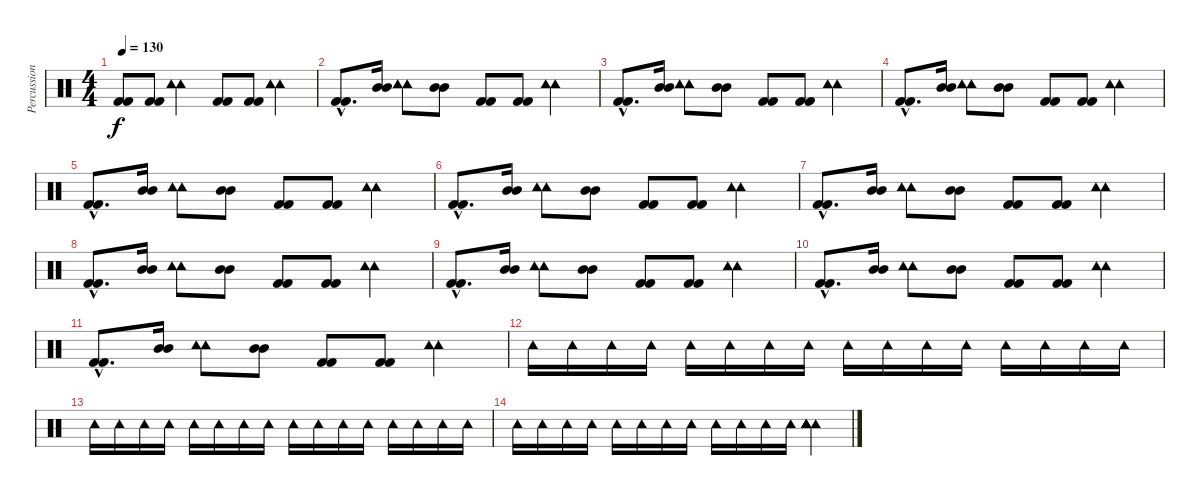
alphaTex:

\track ("Percussion" "Percussion") {instrument percussion}
\staff {score}
\articulation defaults
\ts (4 4)
\tempo 130
\clef neutral
\ks c
("Kick (hit) 2" "Kick (hit) 2").8{dy f} ("Kick (hit) 2" "Kick (hit) 2").8 ("Tambourine (hit)" "Tambourine (hit)").4 ("Kick (hit) 2" "Kick (hit) 2").8 ("Kick (hit) 2" "Kick (hit) 2").8 ("Tambourine (hit)" "Tambourine (hit)").4 |
("Kick (hit) 2"{hac} "Kick (hit) 2"{hac}).8{d} ("Mid Tom (hit)" "Mid Tom (hit)").16 ("Tambourine (hit)" "Tambourine (hit)").8 ("Mid Tom (hit)" "Mid Tom (hit)").8 ("Kick (hit) 2" "Kick (hit) 2").8 ("Kick (hit) 2" "Kick (hit) 2").8 ("Tambourine (hit)" "Tambourine (hit)").4 |
("Kick (hit) 2"{hac} "Kick (hit) 2"{hac}).8{d} ("Mid Tom (hit)" "Mid Tom (hit)").16 ("Tambourine (hit)" "Tambourine (hit)").8 ("Mid Tom (hit)" "Mid Tom (hit)").8 ("Kick (hit) 2" "Kick (hit) 2").8 ("Kick (hit) 2" "Kick (hit) 2").8 ("Tambourine (hit)" "Tambourine (hit)").4 |
("Kick (hit) 2"{hac} "Kick (hit) 2"{hac}).8{d} ("Mid Tom (hit)" "Mid Tom (hit)").16 ("Tambourine (hit)" "Tambourine (hit)").8 ("Mid Tom (hit)" "Mid Tom (hit)").8 ("Kick (hit) 2" "Kick (hit) 2").8 ("Kick (hit) 2" "Kick (hit) 2").8 ("Tambourine (hit)" "Tambourine (hit)").4 |
("Kick (hit) 2"{hac} "Kick (hit) 2"{hac}).8{d} ("Mid Tom (hit)" "Mid Tom (hit)").16 ("Tambourine (hit)" "Tambourine (hit)").8 ("Mid Tom (hit)" "Mid Tom (hit)").8 ("Kick (hit) 2" "Kick (hit) 2").8 ("Kick (hit) 2" "Kick (hit) 2").8 ("Tambourine (hit)" "Tambourine (hit)").4 |
("Kick (hit) 2"{hac} "Kick (hit) 2"{hac}).8{d} ("Mid Tom (hit)" "Mid Tom (hit)").16 ("Tambourine (hit)" "Tambourine (hit)").8 ("Mid Tom (hit)" "Mid Tom (hit)").8 ("Kick (hit) 2" "Kick (hit) 2").8 ("Kick (hit) 2" "Kick (hit) 2").8 ("Tambourine (hit)" "Tambourine (hit)").4 |
("Kick (hit) 2"{hac} "Kick (hit) 2"{hac}).8{d} ("Mid Tom (hit)" "Mid Tom (hit)").16 ("Tambourine (hit)" "Tambourine (hit)").8 ("Mid Tom (hit)" "Mid Tom (hit)").8 ("Kick (hit) 2" "Kick (hit) 2").8 ("Kick (hit) 2" "Kick (hit) 2").8 ("Tambourine (hit)" "Tambourine (hit)").4 |
("Kick (hit) 2"{hac} "Kick (hit) 2"{hac}).8{d} ("Mid Tom (hit)" "Mid Tom (hit)").16 ("Tambourine (hit)" "Tambourine (hit)").8 ("Mid Tom (hit)" "Mid Tom (hit)").8 ("Kick (hit) 2" "Kick (hit) 2").8 ("Kick (hit) 2" "Kick (hit) 2").8 ("Tambourine (hit)" "Tambourine (hit)").4 |
("Kick (hit) 2"{hac} "Kick (hit) 2"{hac}).8{d} ("Mid Tom (hit)" "Mid Tom (hit)").16 ("Tambourine (hit)" "Tambourine (hit)").8 ("Mid Tom (hit)" "Mid Tom (hit)").8 ("Kick (hit) 2" "Kick (hit) 2").8 ("Kick (hit) 2" "Kick (hit) 2").8 ("Tambourine (hit)" "Tambourine (hit)").4 |
("Kick (hit) 2"{hac} "Kick (hit) 2"{hac}).8{d} ("Mid Tom (hit)" "Mid Tom (hit)").16 ("Tambourine (hit)" "Tambourine (hit)").8 ("Mid Tom (hit)" "Mid Tom (hit)").8 ("Kick (hit) 2" "Kick (hit) 2").8 ("Kick (hit) 2" "Kick (hit) 2").8 ("Tambourine (hit)" "Tambourine (hit)").4 |
("Kick (hit) 2"{hac} "Kick (hit) 2"{hac}).8{d} ("Mid Tom (hit)" "Mid Tom (hit)").16 ("Tambourine (hit)" "Tambourine (hit)").8 ("Mid Tom (hit)" "Mid Tom (hit)").8 ("Kick (hit) 2" "Kick (hit) 2").8 ("Kick (hit) 2" "Kick (hit) 2").8 ("Tambourine (hit)" "Tambourine (hit)").4 |
"Tambourine (hit)".16 "Tambourine (hit)".16 "Tambourine (hit)".16 "Tambourine (hit)".16 "Tambourine (hit)".16 "Tambourine (hit)".16 "Tambourine (hit)".16 "Tambourine (hit)".16 "Tambourine (hit)".16 "Tambourine (hit)".16 "Tambourine (hit)".16 "Tambourine (hit)".16 "Tambourine (hit)".16 "Tambourine (hit)".16 "Tambourine (hit)".16 "Tambourine (hit)".16 |
"Tambourine (hit)".16 "Tambourine (hit)".16 "Tambourine (hit)".16 "Tambourine (hit)".16 "Tambourine (hit)".16 "Tambourine (hit)".16 "Tambourine (hit)".16 "Tambourine (hit)".16 "Tambourine (hit)".16 "Tambourine (hit)".16 "Tambourine (hit)".16 "Tambourine (hit)".16 "Tambourine (hit)".16 "Tambourine (hit)".16 "Tambourine (hit)".16 "Tambourine (hit)".16 |
"Tambourine (hit)".16 "Tambourine (hit)".16 "Tambourine (hit)".16 "Tambourine (hit)".16 "Tambourine (hit)".16 "Tambourine (hit)".16 "Tambourine (hit)".16 "Tambourine (hit)".16 "Tambourine (hit)".16 "Tambourine (hit)".16 "Tambourine (hit)".16 "Tambourine (hit)".16 ("Tambourine (hit)" "Tambourine (hit)" "Tambourine (hit)" "Tambourine (hit)" "Tambourine (hit)" "Tambourine (hit)").4
